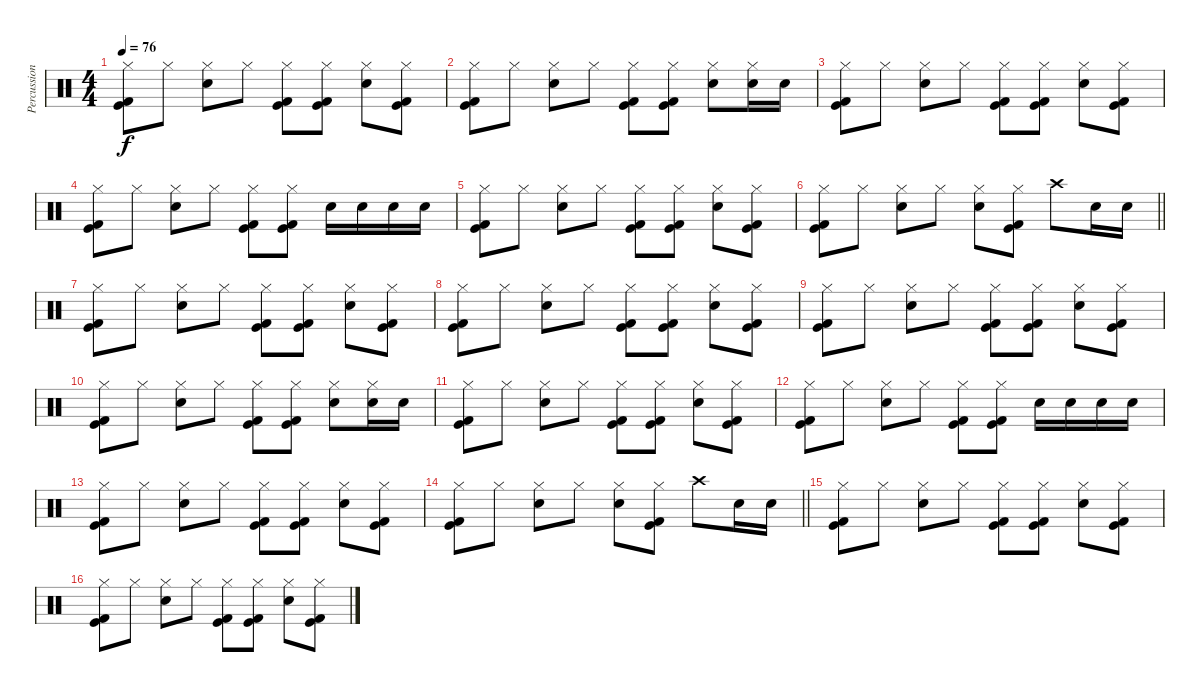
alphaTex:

\track ("Percussion" "Percussion") {instrument percussion}
\staff {score}
\articulation defaults
\ts (4 4)
\tempo 76
\clef neutral
\ks c
("Hi-Hat (closed)" "Kick (hit)" "Kick (hit) 2").8{dy f} "Hi-Hat (closed)".8 ("Hi-Hat (closed)" "Electric Snare (hit)").8 "Hi-Hat (closed)".8 ("Hi-Hat (closed)" "Kick (hit)" "Kick (hit) 2").8 ("Hi-Hat (closed)" "Kick (hit)" "Kick (hit) 2").8 ("Hi-Hat (closed)" "Electric Snare (hit)").8 ("Hi-Hat (closed)" "Kick (hit)" "Kick (hit) 2").8 |
("Hi-Hat (closed)" "Kick (hit)" "Kick (hit) 2").8 "Hi-Hat (closed)".8 ("Hi-Hat (closed)" "Electric Snare (hit)").8 "Hi-Hat (closed)".8 ("Hi-Hat (closed)" "Kick (hit)" "Kick (hit) 2").8 ("Hi-Hat (closed)" "Kick (hit)" "Kick (hit) 2").8 ("Hi-Hat (closed)" "Electric Snare (hit)").8 ("Hi-Hat (closed)" "Electric Snare (hit)").16 "Electric Snare (hit)".16 |
("Hi-Hat (closed)" "Kick (hit)" "Kick (hit) 2").8 "Hi-Hat (closed)".8 ("Hi-Hat (closed)" "Electric Snare (hit)").8 "Hi-Hat (closed)".8 ("Hi-Hat (closed)" "Kick (hit)" "Kick (hit) 2").8 ("Hi-Hat (closed)" "Kick (hit)" "Kick (hit) 2").8 ("Hi-Hat (closed)" "Electric Snare (hit)").8 ("Hi-Hat (closed)" "Kick (hit)" "Kick (hit) 2").8 |
("Hi-Hat (closed)" "Kick (hit)" "Kick (hit) 2").8 "Hi-Hat (closed)".8 ("Hi-Hat (closed)" "Electric Snare (hit)").8 "Hi-Hat (closed)".8 ("Hi-Hat (closed)" "Kick (hit)" "Kick (hit) 2").8 ("Hi-Hat (closed)" "Kick (hit)" "Kick (hit) 2").8 "Electric Snare (hit)".16 "Electric Snare (hit)".16 "Electric Snare (hit)".16 "Electric Snare (hit)".16 |
("Hi-Hat (closed)" "Kick (hit)" "Kick (hit) 2").8 "Hi-Hat (closed)".8 ("Hi-Hat (closed)" "Electric Snare (hit)").8 "Hi-Hat (closed)".8 ("Hi-Hat (closed)" "Kick (hit)" "Kick (hit) 2").8 ("Hi-Hat (closed)" "Kick (hit)" "Kick (hit) 2").8 ("Hi-Hat (closed)" "Electric Snare (hit)").8 ("Hi-Hat (closed)" "Kick (hit)" "Kick (hit) 2").8 |
\barLineRight lightlight
("Hi-Hat (closed)" "Kick (hit)" "Kick (hit) 2").8 "Hi-Hat (closed)".8 ("Hi-Hat (closed)" "Electric Snare (hit)").8 "Hi-Hat (closed)".8 ("Hi-Hat (closed)" "Electric Snare (hit)").8 ("Hi-Hat (closed)" "Kick (hit)" "Kick (hit) 2").8 "Crash high (hit)".8 "Electric Snare (hit)".16 "Electric Snare (hit)".16 |
\section ("" "")
("Hi-Hat (closed)" "Kick (hit)" "Kick (hit) 2").8 "Hi-Hat (closed)".8 ("Hi-Hat (closed)" "Electric Snare (hit)").8 "Hi-Hat (closed)".8 ("Hi-Hat (closed)" "Kick (hit)" "Kick (hit) 2").8 ("Hi-Hat (closed)" "Kick (hit)" "Kick (hit) 2").8 ("Hi-Hat (closed)" "Electric Snare (hit)").8 ("Hi-Hat (closed)" "Kick (hit)" "Kick (hit) 2").8 |
("Hi-Hat (closed)" "Kick (hit)" "Kick (hit) 2").8 "Hi-Hat (closed)".8 ("Hi-Hat (closed)" "Electric Snare (hit)").8 "Hi-Hat (closed)".8 ("Hi-Hat (closed)" "Kick (hit)" "Kick (hit) 2").8 ("Hi-Hat (closed)" "Kick (hit)" "Kick (hit) 2").8 ("Hi-Hat (closed)" "Electric Snare (hit)").8 ("Hi-Hat (closed)" "Kick (hit)" "Kick (hit) 2").8 |
("Hi-Hat (closed)" "Kick (hit)" "Kick (hit) 2").8 "Hi-Hat (closed)".8 ("Hi-Hat (closed)" "Electric Snare (hit)").8 "Hi-Hat (closed)".8 ("Hi-Hat (closed)" "Kick (hit)" "Kick (hit) 2").8 ("Hi-Hat (closed)" "Kick (hit)" "Kick (hit) 2").8 ("Hi-Hat (closed)" "Electric Snare (hit)").8 ("Hi-Hat (closed)" "Kick (hit)" "Kick (hit) 2").8 |
("Hi-Hat (closed)" "Kick (hit)" "Kick (hit) 2").8 "Hi-Hat (closed)".8 ("Hi-Hat (closed)" "Electric Snare (hit)").8 "Hi-Hat (closed)".8 ("Hi-Hat (closed)" "Kick (hit)" "Kick (hit) 2").8 ("Hi-Hat (closed)" "Kick (hit)" "Kick (hit) 2").8 ("Hi-Hat (closed)" "Electric Snare (hit)").8 ("Hi-Hat (closed)" "Electric Snare (hit)").16 "Electric Snare (hit)".16 |
("Hi-Hat (closed)" "Kick (hit)" "Kick (hit) 2").8 "Hi-Hat (closed)".8 ("Hi-Hat (closed)" "Electric Snare (hit)").8 "Hi-Hat (closed)".8 ("Hi-Hat (closed)" "Kick (hit)" "Kick (hit) 2").8 ("Hi-Hat (closed)" "Kick (hit)" "Kick (hit) 2").8 ("Hi-Hat (closed)" "Electric Snare (hit)").8 ("Hi-Hat (closed)" "Kick (hit)" "Kick (hit) 2").8 |
("Hi-Hat (closed)" "Kick (hit)" "Kick (hit) 2").8 "Hi-Hat (closed)".8 ("Hi-Hat (closed)" "Electric Snare (hit)").8 "Hi-Hat (closed)".8 ("Hi-Hat (closed)" "Kick (hit)" "Kick (hit) 2").8 ("Hi-Hat (closed)" "Kick (hit)" "Kick (hit) 2").8 "Electric Snare (hit)".16 "Electric Snare (hit)".16 "Electric Snare (hit)".16 "Electric Snare (hit)".16 |
("Hi-Hat (closed)" "Kick (hit)" "Kick (hit) 2").8 "Hi-Hat (closed)".8 ("Hi-Hat (closed)" "Electric Snare (hit)").8 "Hi-Hat (closed)".8 ("Hi-Hat (closed)" "Kick (hit)" "Kick (hit) 2").8 ("Hi-Hat (closed)" "Kick (hit)" "Kick (hit) 2").8 ("Hi-Hat (closed)" "Electric Snare (hit)").8 ("Hi-Hat (closed)" "Kick (hit)" "Kick (hit) 2").8 |
\barLineRight lightlight
("Hi-Hat (closed)" "Kick (hit)" "Kick (hit) 2").8 "Hi-Hat (closed)".8 ("Hi-Hat (closed)" "Electric Snare (hit)").8 "Hi-Hat (closed)".8 ("Hi-Hat (closed)" "Electric Snare (hit)").8 ("Hi-Hat (closed)" "Kick (hit)" "Kick (hit) 2").8 "Crash high (hit)".8 "Electric Snare (hit)".16 "Electric Snare (hit)".16 |
\section ("" "")
("Hi-Hat (closed)" "Kick (hit)" "Kick (hit) 2").8{volume 12} "Hi-Hat (closed)".8 ("Hi-Hat (closed)" "Electric Snare (hit)").8 "Hi-Hat (closed)".8 ("Hi-Hat (closed)" "Kick (hit)" "Kick (hit) 2").8 ("Hi-Hat (closed)" "Kick (hit)" "Kick (hit) 2").8 ("Hi-Hat (closed)" "Electric Snare (hit)").8 ("Hi-Hat (closed)" "Kick (hit)" "Kick (hit) 2").8 |
("Hi-Hat (closed)" "Kick (hit)" "Kick (hit) 2").8 "Hi-Hat (closed)".8 ("Hi-Hat (closed)" "Electric Snare (hit)").8 "Hi-Hat (closed)".8 ("Hi-Hat (closed)" "Kick (hit)" "Kick (hit) 2").8 ("Hi-Hat (closed)" "Kick (hit)" "Kick (hit) 2").8 ("Hi-Hat (closed)" "Electric Snare (hit)").8 ("Hi-Hat (closed)" "Kick (hit)" "Kick (hit) 2").8
